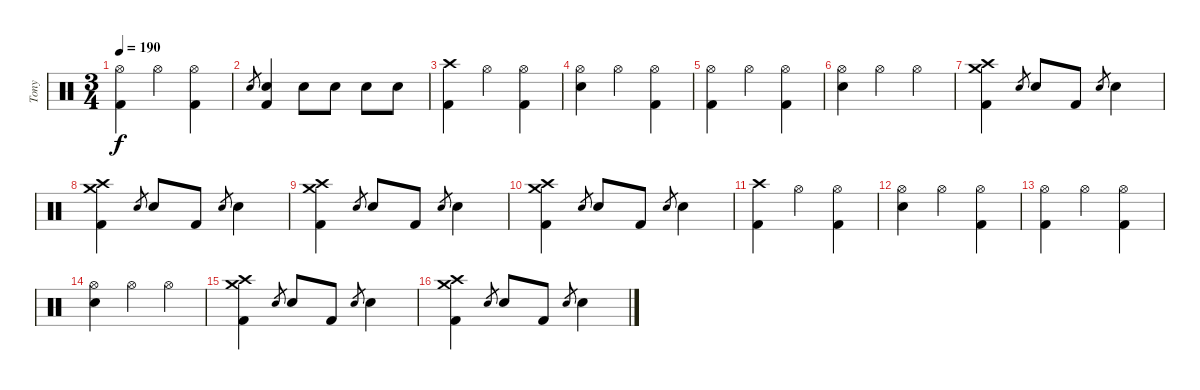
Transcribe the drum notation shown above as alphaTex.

\track ("Tony" "Tony") {instrument percussion}
\staff {score}
\articulation defaults
\ts (3 4)
\tempo 190
\clef neutral
\ks c
("Hi-Hat (open)" "Kick (hit) 2").4{dy f} "Hi-Hat (open)".4 ("Hi-Hat (open)" "Kick (hit) 2").4 |
"Snare (hit) 2".8{gr} ("Snare (hit) 2" "Kick (hit) 2").4 "Snare (hit) 2".8 "Snare (hit) 2".8 "Snare (hit) 2".8 "Snare (hit) 2".8 |
("Crash high (hit)" "Kick (hit) 2").4 "Hi-Hat (open)".4 ("Hi-Hat (open)" "Kick (hit) 2").4 |
("Hi-Hat (open)" "Snare (hit) 2").4 "Hi-Hat (open)".4 ("Hi-Hat (open)" "Kick (hit) 2").4 |
("Hi-Hat (open)" "Kick (hit) 2").4 "Hi-Hat (open)".4 ("Hi-Hat (open)" "Kick (hit) 2").4 |
("Hi-Hat (open)" "Snare (hit) 2").4 "Hi-Hat (open)".4 "Hi-Hat (open)".4 |
("Crash high (hit)" "Crash medium (hit)" "Kick (hit) 2").4 "Snare (hit) 2".8{gr} "Snare (hit) 2".8 "Kick (hit) 2".8 "Snare (hit) 2".8{gr} "Snare (hit) 2".4 |
("Crash high (hit)" "Crash medium (hit)" "Kick (hit) 2").4 "Snare (hit) 2".8{gr} "Snare (hit) 2".8 "Kick (hit) 2".8 "Snare (hit) 2".8{gr} "Snare (hit) 2".4 |
("Crash high (hit)" "Crash medium (hit)" "Kick (hit) 2").4 "Snare (hit) 2".8{gr} "Snare (hit) 2".8 "Kick (hit) 2".8 "Snare (hit) 2".8{gr} "Snare (hit) 2".4 |
("Crash high (hit)" "Crash medium (hit)" "Kick (hit) 2").4 "Snare (hit) 2".8{gr} "Snare (hit) 2".8 "Kick (hit) 2".8 "Snare (hit) 2".8{gr} "Snare (hit) 2".4 |
("Crash high (hit)" "Kick (hit) 2").4 "Hi-Hat (open)".4 ("Hi-Hat (open)" "Kick (hit) 2").4 |
("Hi-Hat (open)" "Snare (hit) 2").4 "Hi-Hat (open)".4 ("Hi-Hat (open)" "Kick (hit) 2").4 |
("Hi-Hat (open)" "Kick (hit) 2").4 "Hi-Hat (open)".4 ("Hi-Hat (open)" "Kick (hit) 2").4 |
("Hi-Hat (open)" "Snare (hit) 2").4 "Hi-Hat (open)".4 "Hi-Hat (open)".4 |
("Crash high (hit)" "Crash medium (hit)" "Kick (hit) 2").4 "Snare (hit) 2".8{gr} "Snare (hit) 2".8 "Kick (hit) 2".8 "Snare (hit) 2".8{gr} "Snare (hit) 2".4 |
("Crash high (hit)" "Crash medium (hit)" "Kick (hit) 2").4 "Snare (hit) 2".8{gr} "Snare (hit) 2".8 "Kick (hit) 2".8 "Snare (hit) 2".8{gr} "Snare (hit) 2".4
